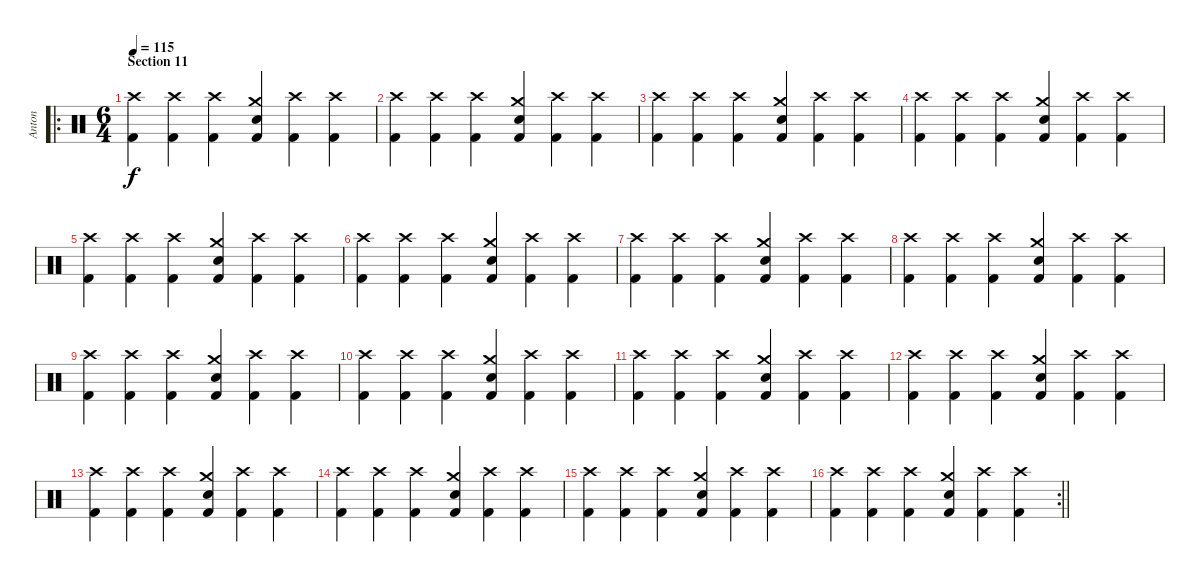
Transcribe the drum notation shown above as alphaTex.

\track ("Anton" "Anton") {instrument percussion}
\staff {score}
\articulation defaults
\ro
\ts (6 4)
\section ("" "Section 11")
\tempo 115
\clef neutral
\ks c
("Crash high (hit)" "Kick (hit) 2").4{dy f} ("Crash high (hit)" "Kick (hit) 2").4 ("Crash high (hit)" "Kick (hit) 2").4 ("Crash medium (hit)" "Electric Snare (hit)" "Kick (hit) 2").4 ("Crash high (hit)" "Kick (hit) 2").4 ("Crash high (hit)" "Kick (hit) 2").4 |
("Crash high (hit)" "Kick (hit) 2").4 ("Crash high (hit)" "Kick (hit) 2").4 ("Crash high (hit)" "Kick (hit) 2").4 ("Crash medium (hit)" "Electric Snare (hit)" "Kick (hit) 2").4 ("Crash high (hit)" "Kick (hit) 2").4 ("Crash high (hit)" "Kick (hit) 2").4 |
("Crash high (hit)" "Kick (hit) 2").4 ("Crash high (hit)" "Kick (hit) 2").4 ("Crash high (hit)" "Kick (hit) 2").4 ("Crash medium (hit)" "Electric Snare (hit)" "Kick (hit) 2").4 ("Crash high (hit)" "Kick (hit) 2").4 ("Crash high (hit)" "Kick (hit) 2").4 |
("Crash high (hit)" "Kick (hit) 2").4 ("Crash high (hit)" "Kick (hit) 2").4 ("Crash high (hit)" "Kick (hit) 2").4 ("Crash medium (hit)" "Electric Snare (hit)" "Kick (hit) 2").4 ("Crash high (hit)" "Kick (hit) 2").4 ("Crash high (hit)" "Kick (hit) 2").4 |
("Crash high (hit)" "Kick (hit) 2").4 ("Crash high (hit)" "Kick (hit) 2").4 ("Crash high (hit)" "Kick (hit) 2").4 ("Crash medium (hit)" "Electric Snare (hit)" "Kick (hit) 2").4 ("Crash high (hit)" "Kick (hit) 2").4 ("Crash high (hit)" "Kick (hit) 2").4 |
("Crash high (hit)" "Kick (hit) 2").4 ("Crash high (hit)" "Kick (hit) 2").4 ("Crash high (hit)" "Kick (hit) 2").4 ("Crash medium (hit)" "Electric Snare (hit)" "Kick (hit) 2").4 ("Crash high (hit)" "Kick (hit) 2").4 ("Crash high (hit)" "Kick (hit) 2").4 |
("Crash high (hit)" "Kick (hit) 2").4 ("Crash high (hit)" "Kick (hit) 2").4 ("Crash high (hit)" "Kick (hit) 2").4 ("Crash medium (hit)" "Electric Snare (hit)" "Kick (hit) 2").4 ("Crash high (hit)" "Kick (hit) 2").4 ("Crash high (hit)" "Kick (hit) 2").4 |
("Crash high (hit)" "Kick (hit) 2").4 ("Crash high (hit)" "Kick (hit) 2").4 ("Crash high (hit)" "Kick (hit) 2").4 ("Crash medium (hit)" "Electric Snare (hit)" "Kick (hit) 2").4 ("Crash high (hit)" "Kick (hit) 2").4 ("Crash high (hit)" "Kick (hit) 2").4 |
("Crash high (hit)" "Kick (hit) 2").4 ("Crash high (hit)" "Kick (hit) 2").4 ("Crash high (hit)" "Kick (hit) 2").4 ("Crash medium (hit)" "Electric Snare (hit)" "Kick (hit) 2").4 ("Crash high (hit)" "Kick (hit) 2").4 ("Crash high (hit)" "Kick (hit) 2").4 |
("Crash high (hit)" "Kick (hit) 2").4 ("Crash high (hit)" "Kick (hit) 2").4 ("Crash high (hit)" "Kick (hit) 2").4 ("Crash medium (hit)" "Electric Snare (hit)" "Kick (hit) 2").4 ("Crash high (hit)" "Kick (hit) 2").4 ("Crash high (hit)" "Kick (hit) 2").4 |
("Crash high (hit)" "Kick (hit) 2").4 ("Crash high (hit)" "Kick (hit) 2").4 ("Crash high (hit)" "Kick (hit) 2").4 ("Crash medium (hit)" "Electric Snare (hit)" "Kick (hit) 2").4 ("Crash high (hit)" "Kick (hit) 2").4 ("Crash high (hit)" "Kick (hit) 2").4 |
("Crash high (hit)" "Kick (hit) 2").4 ("Crash high (hit)" "Kick (hit) 2").4 ("Crash high (hit)" "Kick (hit) 2").4 ("Crash medium (hit)" "Electric Snare (hit)" "Kick (hit) 2").4 ("Crash high (hit)" "Kick (hit) 2").4 ("Crash high (hit)" "Kick (hit) 2").4 |
("Crash high (hit)" "Kick (hit) 2").4 ("Crash high (hit)" "Kick (hit) 2").4 ("Crash high (hit)" "Kick (hit) 2").4 ("Crash medium (hit)" "Electric Snare (hit)" "Kick (hit) 2").4 ("Crash high (hit)" "Kick (hit) 2").4 ("Crash high (hit)" "Kick (hit) 2").4 |
("Crash high (hit)" "Kick (hit) 2").4 ("Crash high (hit)" "Kick (hit) 2").4 ("Crash high (hit)" "Kick (hit) 2").4 ("Crash medium (hit)" "Electric Snare (hit)" "Kick (hit) 2").4 ("Crash high (hit)" "Kick (hit) 2").4 ("Crash high (hit)" "Kick (hit) 2").4 |
("Crash high (hit)" "Kick (hit) 2").4 ("Crash high (hit)" "Kick (hit) 2").4 ("Crash high (hit)" "Kick (hit) 2").4 ("Crash medium (hit)" "Electric Snare (hit)" "Kick (hit) 2").4 ("Crash high (hit)" "Kick (hit) 2").4 ("Crash high (hit)" "Kick (hit) 2").4 |
\rc 2
\barLineRight lightlight
("Crash high (hit)" "Kick (hit) 2").4 ("Crash high (hit)" "Kick (hit) 2").4 ("Crash high (hit)" "Kick (hit) 2").4 ("Crash medium (hit)" "Electric Snare (hit)" "Kick (hit) 2").4 ("Crash high (hit)" "Kick (hit) 2").4 ("Crash high (hit)" "Kick (hit) 2").4
